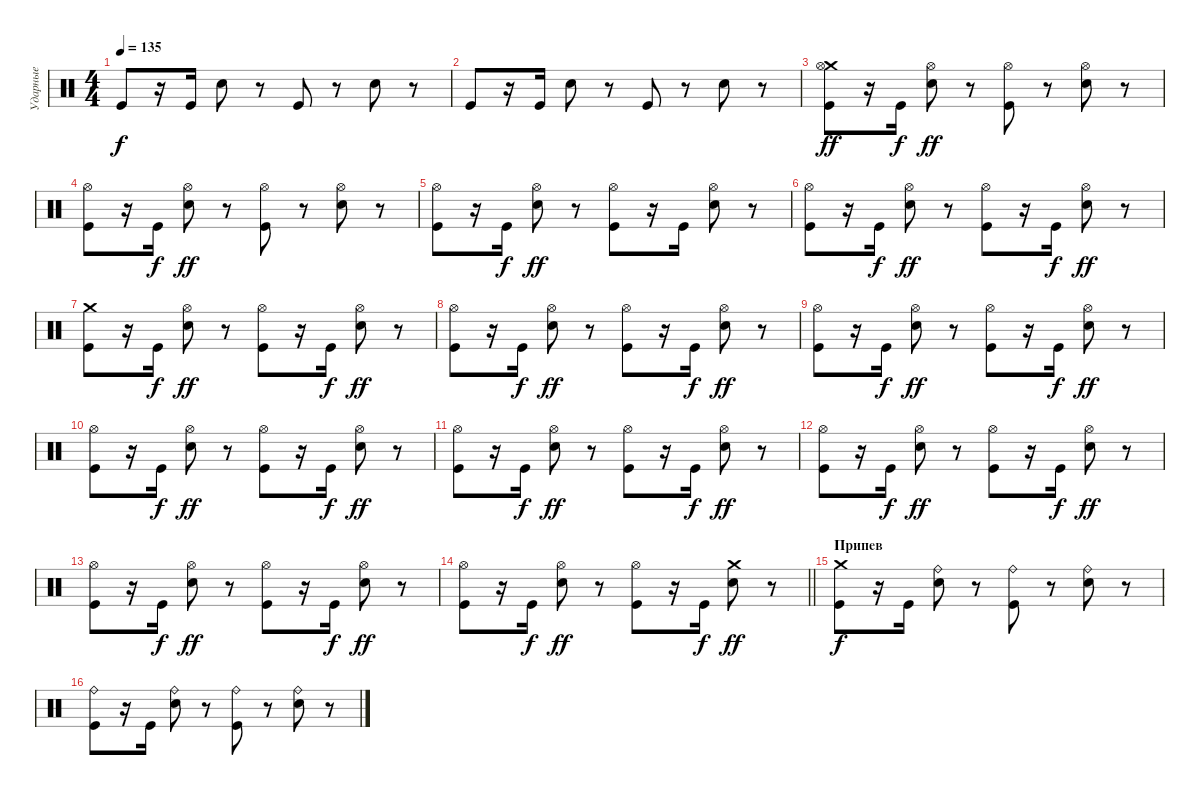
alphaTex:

\track ("Ударные" "Ударные") {instrument percussion}
\staff {score}
\articulation defaults
\ts (4 4)
\tempo 135
\clef neutral
\ks c "Kick (hit)".8{dy f}
r.16 "Kick (hit)".16 "Electric Snare (hit)".8 r.8 "Kick (hit)".8 r.8 "Electric Snare (hit)".8 r.8 |
"Kick (hit)".8 r.16 "Kick (hit)".16 "Electric Snare (hit)".8 r.8 "Kick (hit)".8 r.8 "Electric Snare (hit)".8 r.8 |
("Crash medium (hit)" "Kick (hit)" "Hi-Hat (open)").8{dy ff} r.16 "Kick (hit)".16{dy f} ("Electric Snare (hit)" "Hi-Hat (open)").8{dy ff} r.8 ("Kick (hit)" "Hi-Hat (open)").8 r.8 ("Electric Snare (hit)" "Hi-Hat (open)").8 r.8 |
("Kick (hit)" "Hi-Hat (open)").8 r.16 "Kick (hit)".16{dy f} ("Electric Snare (hit)" "Hi-Hat (open)").8{dy ff} r.8 ("Kick (hit)" "Hi-Hat (open)").8 r.8 ("Electric Snare (hit)" "Hi-Hat (open)").8 r.8 |
("Kick (hit)" "Hi-Hat (open)").8 r.16 "Kick (hit)".16{dy f} ("Electric Snare (hit)" "Hi-Hat (open)").8{dy ff} r.8 ("Kick (hit)" "Hi-Hat (open)").8 r.16 "Kick (hit)".16 ("Electric Snare (hit)" "Hi-Hat (open)").8 r.8 |
("Kick (hit)" "Hi-Hat (open)").8 r.16 "Kick (hit)".16{dy f} ("Electric Snare (hit)" "Hi-Hat (open)").8{dy ff} r.8 ("Kick (hit)" "Hi-Hat (open)").8 r.16 "Kick (hit)".16{dy f} ("Electric Snare (hit)" "Hi-Hat (open)").8{dy ff} r.8 |
("Kick (hit)" "Crash medium (hit)").8 r.16 "Kick (hit)".16{dy f} ("Electric Snare (hit)" "Hi-Hat (open)").8{dy ff} r.8 ("Kick (hit)" "Hi-Hat (open)").8 r.16 "Kick (hit)".16{dy f} ("Electric Snare (hit)" "Hi-Hat (open)").8{dy ff} r.8 |
("Kick (hit)" "Hi-Hat (open)").8 r.16 "Kick (hit)".16{dy f} ("Electric Snare (hit)" "Hi-Hat (open)").8{dy ff} r.8 ("Kick (hit)" "Hi-Hat (open)").8 r.16 "Kick (hit)".16{dy f} ("Electric Snare (hit)" "Hi-Hat (open)").8{dy ff} r.8 |
("Kick (hit)" "Hi-Hat (open)").8 r.16 "Kick (hit)".16{dy f} ("Electric Snare (hit)" "Hi-Hat (open)").8{dy ff} r.8 ("Kick (hit)" "Hi-Hat (open)").8 r.16 "Kick (hit)".16{dy f} ("Electric Snare (hit)" "Hi-Hat (open)").8{dy ff} r.8 |
("Kick (hit)" "Hi-Hat (open)").8 r.16 "Kick (hit)".16{dy f} ("Electric Snare (hit)" "Hi-Hat (open)").8{dy ff} r.8 ("Kick (hit)" "Hi-Hat (open)").8 r.16 "Kick (hit)".16{dy f} ("Electric Snare (hit)" "Hi-Hat (open)").8{dy ff} r.8 |
("Kick (hit)" "Hi-Hat (open)").8 r.16 "Kick (hit)".16{dy f} ("Electric Snare (hit)" "Hi-Hat (open)").8{dy ff} r.8 ("Kick (hit)" "Hi-Hat (open)").8 r.16 "Kick (hit)".16{dy f} ("Electric Snare (hit)" "Hi-Hat (open)").8{dy ff} r.8 |
("Kick (hit)" "Hi-Hat (open)").8 r.16 "Kick (hit)".16{dy f} ("Electric Snare (hit)" "Hi-Hat (open)").8{dy ff} r.8 ("Kick (hit)" "Hi-Hat (open)").8 r.16 "Kick (hit)".16{dy f} ("Electric Snare (hit)" "Hi-Hat (open)").8{dy ff} r.8 |
("Kick (hit)" "Hi-Hat (open)").8 r.16 "Kick (hit)".16{dy f} ("Electric Snare (hit)" "Hi-Hat (open)").8{dy ff} r.8 ("Kick (hit)" "Hi-Hat (open)").8 r.16 "Kick (hit)".16{dy f} ("Electric Snare (hit)" "Hi-Hat (open)").8{dy ff} r.8 |
\barLineRight lightlight
("Kick (hit)" "Hi-Hat (open)").8 r.16 "Kick (hit)".16{dy f} ("Electric Snare (hit)" "Hi-Hat (open)").8{dy ff} r.8 ("Kick (hit)" "Hi-Hat (open)").8 r.16 "Kick (hit)".16{dy f} ("Electric Snare (hit)" "Crash medium (hit)").8{dy ff} r.8 |
\section ("" "Припев")
("Crash medium (hit)" "Kick (hit)").8{dy f} r.16 "Kick (hit)".16 ("Ride (bell)" "Electric Snare (hit)").8 r.8 ("Ride (bell)" "Kick (hit)").8 r.8 ("Ride (bell)" "Electric Snare (hit)").8 r.8 |
("Ride (bell)" "Kick (hit)").8 r.16 "Kick (hit)".16 ("Ride (bell)" "Electric Snare (hit)").8 r.8 ("Ride (bell)" "Kick (hit)").8 r.8 ("Ride (bell)" "Electric Snare (hit)").8 r.8
